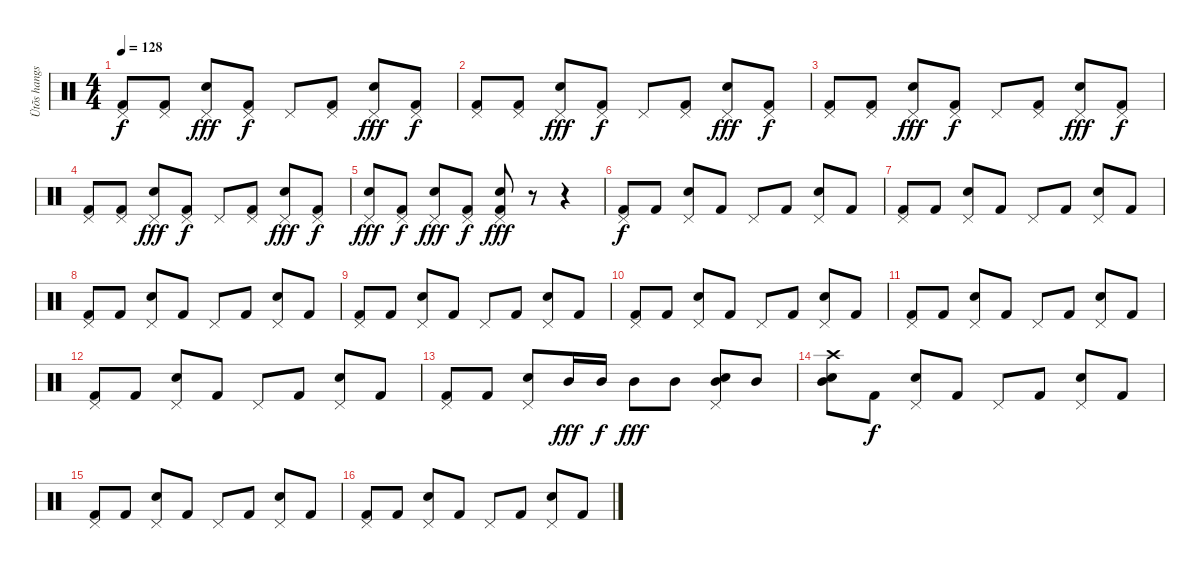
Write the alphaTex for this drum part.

\track ("Ütõs hangszer" "Ütõs hangs") {instrument percussion}
\staff {score}
\articulation defaults
\ts (4 4)
\tempo 128
\clef neutral
\ks c
("Kick (hit) 2" "Pedal Hi-Hat (hit)").8{dy f} ("Kick (hit) 2" "Pedal Hi-Hat (hit)").8 ("Electric Snare (hit)" "Pedal Hi-Hat (hit)").8{dy fff} ("Kick (hit) 2" "Pedal Hi-Hat (hit)").8{dy f} "Pedal Hi-Hat (hit)".8 ("Kick (hit) 2" "Pedal Hi-Hat (hit)").8 ("Electric Snare (hit)" "Pedal Hi-Hat (hit)").8{dy fff} ("Kick (hit) 2" "Pedal Hi-Hat (hit)").8{dy f} |
("Kick (hit) 2" "Pedal Hi-Hat (hit)").8 ("Kick (hit) 2" "Pedal Hi-Hat (hit)").8 ("Electric Snare (hit)" "Pedal Hi-Hat (hit)").8{dy fff} ("Kick (hit) 2" "Pedal Hi-Hat (hit)").8{dy f} "Pedal Hi-Hat (hit)".8 ("Kick (hit) 2" "Pedal Hi-Hat (hit)").8 ("Electric Snare (hit)" "Pedal Hi-Hat (hit)").8{dy fff} ("Kick (hit) 2" "Pedal Hi-Hat (hit)").8{dy f} |
("Kick (hit) 2" "Pedal Hi-Hat (hit)").8 ("Kick (hit) 2" "Pedal Hi-Hat (hit)").8 ("Electric Snare (hit)" "Pedal Hi-Hat (hit)").8{dy fff} ("Kick (hit) 2" "Pedal Hi-Hat (hit)").8{dy f} "Pedal Hi-Hat (hit)".8 ("Kick (hit) 2" "Pedal Hi-Hat (hit)").8 ("Electric Snare (hit)" "Pedal Hi-Hat (hit)").8{dy fff} ("Kick (hit) 2" "Pedal Hi-Hat (hit)").8{dy f} |
("Kick (hit) 2" "Pedal Hi-Hat (hit)").8 ("Kick (hit) 2" "Pedal Hi-Hat (hit)").8 ("Electric Snare (hit)" "Pedal Hi-Hat (hit)").8{dy fff} ("Kick (hit) 2" "Pedal Hi-Hat (hit)").8{dy f} "Pedal Hi-Hat (hit)".8 ("Kick (hit) 2" "Pedal Hi-Hat (hit)").8 ("Electric Snare (hit)" "Pedal Hi-Hat (hit)").8{dy fff} ("Kick (hit) 2" "Pedal Hi-Hat (hit)").8{dy f} |
("Electric Snare (hit)" "Pedal Hi-Hat (hit)").8{dy fff} ("Kick (hit) 2" "Pedal Hi-Hat (hit)").8{dy f} ("Electric Snare (hit)" "Pedal Hi-Hat (hit)").8{dy fff} ("Kick (hit) 2" "Pedal Hi-Hat (hit)").8{dy f} ("Electric Snare (hit)" "Kick (hit) 2" "Pedal Hi-Hat (hit)").8{dy fff} r.8 r.4 |
("Kick (hit) 2" "Pedal Hi-Hat (hit)").8{dy f} "Kick (hit) 2".8 ("Electric Snare (hit)" "Pedal Hi-Hat (hit)").8 "Kick (hit) 2".8 "Pedal Hi-Hat (hit)".8 "Kick (hit) 2".8 ("Electric Snare (hit)" "Pedal Hi-Hat (hit)").8 "Kick (hit) 2".8 |
("Kick (hit) 2" "Pedal Hi-Hat (hit)").8 "Kick (hit) 2".8 ("Electric Snare (hit)" "Pedal Hi-Hat (hit)").8 "Kick (hit) 2".8 "Pedal Hi-Hat (hit)".8 "Kick (hit) 2".8 ("Electric Snare (hit)" "Pedal Hi-Hat (hit)").8 "Kick (hit) 2".8 |
("Kick (hit) 2" "Pedal Hi-Hat (hit)").8 "Kick (hit) 2".8 ("Electric Snare (hit)" "Pedal Hi-Hat (hit)").8 "Kick (hit) 2".8 "Pedal Hi-Hat (hit)".8 "Kick (hit) 2".8 ("Electric Snare (hit)" "Pedal Hi-Hat (hit)").8 "Kick (hit) 2".8 |
("Kick (hit) 2" "Pedal Hi-Hat (hit)").8 "Kick (hit) 2".8 ("Electric Snare (hit)" "Pedal Hi-Hat (hit)").8 "Kick (hit) 2".8 "Pedal Hi-Hat (hit)".8 "Kick (hit) 2".8 ("Electric Snare (hit)" "Pedal Hi-Hat (hit)").8 "Kick (hit) 2".8 |
("Kick (hit) 2" "Pedal Hi-Hat (hit)").8 "Kick (hit) 2".8 ("Electric Snare (hit)" "Pedal Hi-Hat (hit)").8 "Kick (hit) 2".8 "Pedal Hi-Hat (hit)".8 "Kick (hit) 2".8 ("Electric Snare (hit)" "Pedal Hi-Hat (hit)").8 "Kick (hit) 2".8 |
("Kick (hit) 2" "Pedal Hi-Hat (hit)").8 "Kick (hit) 2".8 ("Electric Snare (hit)" "Pedal Hi-Hat (hit)").8 "Kick (hit) 2".8 "Pedal Hi-Hat (hit)".8 "Kick (hit) 2".8 ("Electric Snare (hit)" "Pedal Hi-Hat (hit)").8 "Kick (hit) 2".8 |
("Kick (hit) 2" "Pedal Hi-Hat (hit)").8 "Kick (hit) 2".8 ("Electric Snare (hit)" "Pedal Hi-Hat (hit)").8 "Kick (hit) 2".8 "Pedal Hi-Hat (hit)".8 "Kick (hit) 2".8 ("Electric Snare (hit)" "Pedal Hi-Hat (hit)").8 "Kick (hit) 2".8 |
("Kick (hit) 2" "Pedal Hi-Hat (hit)").8 "Kick (hit) 2".8 ("Electric Snare (hit)" "Pedal Hi-Hat (hit)").8 "Mid Tom (hit)".16{dy fff} "Mid Tom (hit)".16{dy f} "Mid Tom (hit)".8{dy fff} "Mid Tom (hit)".8 ("Electric Snare (hit)" "Mid Tom (hit)" "Pedal Hi-Hat (hit)").8 "Mid Tom (hit)".8 |
("Electric Snare (hit)" "Mid Tom (hit)" "Crash high (hit)").8 "Kick (hit) 2".8{dy f} ("Electric Snare (hit)" "Pedal Hi-Hat (hit)").8 "Kick (hit) 2".8 "Pedal Hi-Hat (hit)".8 "Kick (hit) 2".8 ("Electric Snare (hit)" "Pedal Hi-Hat (hit)").8 "Kick (hit) 2".8 |
("Kick (hit) 2" "Pedal Hi-Hat (hit)").8 "Kick (hit) 2".8 ("Electric Snare (hit)" "Pedal Hi-Hat (hit)").8 "Kick (hit) 2".8 "Pedal Hi-Hat (hit)".8 "Kick (hit) 2".8 ("Electric Snare (hit)" "Pedal Hi-Hat (hit)").8 "Kick (hit) 2".8 |
("Kick (hit) 2" "Pedal Hi-Hat (hit)").8 "Kick (hit) 2".8 ("Electric Snare (hit)" "Pedal Hi-Hat (hit)").8 "Kick (hit) 2".8 "Pedal Hi-Hat (hit)".8 "Kick (hit) 2".8 ("Electric Snare (hit)" "Pedal Hi-Hat (hit)").8 "Kick (hit) 2".8
